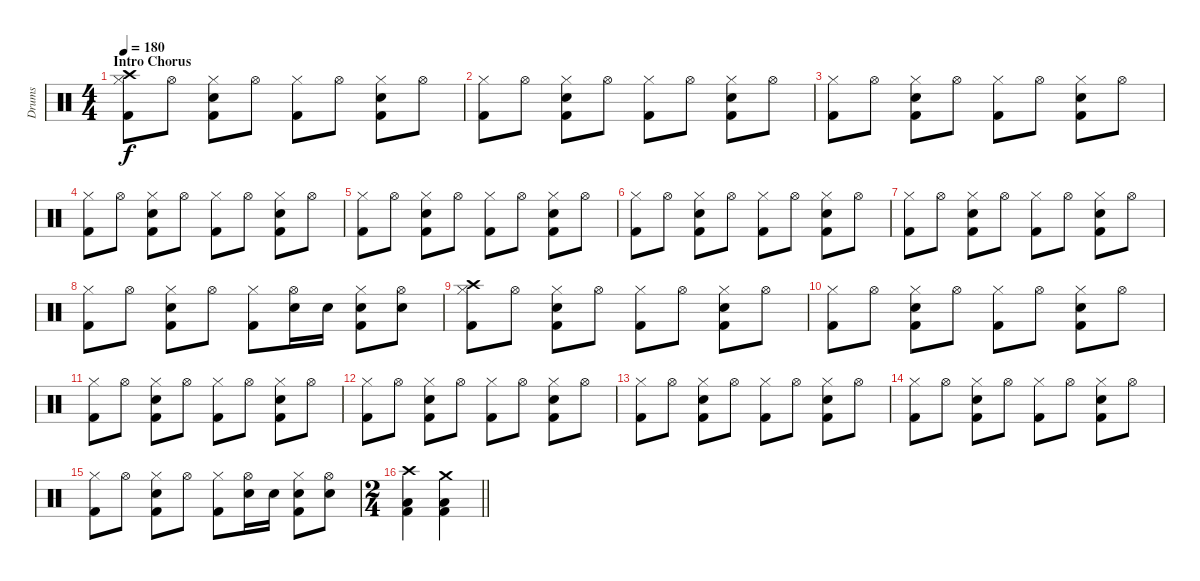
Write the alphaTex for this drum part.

\track ("Drums" "Drums") {instrument percussion}
\staff {score}
\articulation defaults
\ts (4 4)
\section ("" "Intro Chorus")
\tempo 180
\clef neutral
\ks c
("Crash high (hit)" "Hi-Hat (closed)" "Kick (hit) 2").8{dy f} "Hi-Hat (open)".8 ("Hi-Hat (closed)" "Snare (hit) 2" "Kick (hit) 2").8 "Hi-Hat (open)".8 ("Hi-Hat (closed)" "Kick (hit) 2").8 "Hi-Hat (open)".8 ("Hi-Hat (closed)" "Snare (hit) 2" "Kick (hit) 2").8 "Hi-Hat (open)".8 |
("Hi-Hat (closed)" "Kick (hit) 2").8 "Hi-Hat (open)".8 ("Hi-Hat (closed)" "Snare (hit) 2" "Kick (hit) 2").8 "Hi-Hat (open)".8 ("Hi-Hat (closed)" "Kick (hit) 2").8 "Hi-Hat (open)".8 ("Hi-Hat (closed)" "Snare (hit) 2" "Kick (hit) 2").8 "Hi-Hat (open)".8 |
("Hi-Hat (closed)" "Kick (hit) 2").8 "Hi-Hat (open)".8 ("Hi-Hat (closed)" "Snare (hit) 2" "Kick (hit) 2").8 "Hi-Hat (open)".8 ("Hi-Hat (closed)" "Kick (hit) 2").8 "Hi-Hat (open)".8 ("Hi-Hat (closed)" "Snare (hit) 2" "Kick (hit) 2").8 "Hi-Hat (open)".8 |
("Hi-Hat (closed)" "Kick (hit) 2").8 "Hi-Hat (open)".8 ("Hi-Hat (closed)" "Snare (hit) 2" "Kick (hit) 2").8 "Hi-Hat (open)".8 ("Hi-Hat (closed)" "Kick (hit) 2").8 "Hi-Hat (open)".8 ("Hi-Hat (closed)" "Snare (hit) 2" "Kick (hit) 2").8 "Hi-Hat (open)".8 |
("Hi-Hat (closed)" "Kick (hit) 2").8 "Hi-Hat (open)".8 ("Hi-Hat (closed)" "Snare (hit) 2" "Kick (hit) 2").8 "Hi-Hat (open)".8 ("Hi-Hat (closed)" "Kick (hit) 2").8 "Hi-Hat (open)".8 ("Hi-Hat (closed)" "Snare (hit) 2" "Kick (hit) 2").8 "Hi-Hat (open)".8 |
("Hi-Hat (closed)" "Kick (hit) 2").8 "Hi-Hat (open)".8 ("Hi-Hat (closed)" "Snare (hit) 2" "Kick (hit) 2").8 "Hi-Hat (open)".8 ("Hi-Hat (closed)" "Kick (hit) 2").8 "Hi-Hat (open)".8 ("Hi-Hat (closed)" "Snare (hit) 2" "Kick (hit) 2").8 "Hi-Hat (open)".8 |
("Hi-Hat (closed)" "Kick (hit) 2").8 "Hi-Hat (open)".8 ("Hi-Hat (closed)" "Snare (hit) 2" "Kick (hit) 2").8 "Hi-Hat (open)".8 ("Hi-Hat (closed)" "Kick (hit) 2").8 "Hi-Hat (open)".8 ("Hi-Hat (closed)" "Snare (hit) 2" "Kick (hit) 2").8 "Hi-Hat (open)".8 |
("Hi-Hat (closed)" "Kick (hit) 2").8 "Hi-Hat (open)".8 ("Hi-Hat (closed)" "Snare (hit) 2" "Kick (hit) 2").8 "Hi-Hat (open)".8 ("Hi-Hat (closed)" "Kick (hit) 2").8 ("Hi-Hat (open)" "Snare (hit) 2").16 "Snare (hit) 2".16 ("Hi-Hat (closed)" "Snare (hit) 2" "Kick (hit) 2").8 ("Hi-Hat (open)" "Snare (hit) 2").8 |
("Crash high (hit)" "Hi-Hat (closed)" "Kick (hit) 2").8 "Hi-Hat (open)".8 ("Hi-Hat (closed)" "Snare (hit) 2" "Kick (hit) 2").8 "Hi-Hat (open)".8 ("Hi-Hat (closed)" "Kick (hit) 2").8 "Hi-Hat (open)".8 ("Hi-Hat (closed)" "Snare (hit) 2" "Kick (hit) 2").8 "Hi-Hat (open)".8 |
("Hi-Hat (closed)" "Kick (hit) 2").8 "Hi-Hat (open)".8 ("Hi-Hat (closed)" "Snare (hit) 2" "Kick (hit) 2").8 "Hi-Hat (open)".8 ("Hi-Hat (closed)" "Kick (hit) 2").8 "Hi-Hat (open)".8 ("Hi-Hat (closed)" "Snare (hit) 2" "Kick (hit) 2").8 "Hi-Hat (open)".8 |
("Hi-Hat (closed)" "Kick (hit) 2").8 "Hi-Hat (open)".8 ("Hi-Hat (closed)" "Snare (hit) 2" "Kick (hit) 2").8 "Hi-Hat (open)".8 ("Hi-Hat (closed)" "Kick (hit) 2").8 "Hi-Hat (open)".8 ("Hi-Hat (closed)" "Snare (hit) 2" "Kick (hit) 2").8 "Hi-Hat (open)".8 |
("Hi-Hat (closed)" "Kick (hit) 2").8 "Hi-Hat (open)".8 ("Hi-Hat (closed)" "Snare (hit) 2" "Kick (hit) 2").8 "Hi-Hat (open)".8 ("Hi-Hat (closed)" "Kick (hit) 2").8 "Hi-Hat (open)".8 ("Hi-Hat (closed)" "Snare (hit) 2" "Kick (hit) 2").8 "Hi-Hat (open)".8 |
("Hi-Hat (closed)" "Kick (hit) 2").8 "Hi-Hat (open)".8 ("Hi-Hat (closed)" "Snare (hit) 2" "Kick (hit) 2").8 "Hi-Hat (open)".8 ("Hi-Hat (closed)" "Kick (hit) 2").8 "Hi-Hat (open)".8 ("Hi-Hat (closed)" "Snare (hit) 2" "Kick (hit) 2").8 "Hi-Hat (open)".8 |
("Hi-Hat (closed)" "Kick (hit) 2").8 "Hi-Hat (open)".8 ("Hi-Hat (closed)" "Snare (hit) 2" "Kick (hit) 2").8 "Hi-Hat (open)".8 ("Hi-Hat (closed)" "Kick (hit) 2").8 "Hi-Hat (open)".8 ("Hi-Hat (closed)" "Snare (hit) 2" "Kick (hit) 2").8 "Hi-Hat (open)".8 |
("Hi-Hat (closed)" "Kick (hit) 2").8 "Hi-Hat (open)".8 ("Hi-Hat (closed)" "Snare (hit) 2" "Kick (hit) 2").8 "Hi-Hat (open)".8 ("Hi-Hat (closed)" "Kick (hit) 2").8 ("Hi-Hat (open)" "Snare (hit) 2").16 "Snare (hit) 2".16 ("Hi-Hat (closed)" "Snare (hit) 2" "Kick (hit) 2").8 ("Hi-Hat (open)" "Snare (hit) 2").8 |
\ts (2 4)
\barLineRight lightlight
("Crash high (hit)" "Low Floor Tom (hit)" "Kick (hit) 2").4 ("Crash medium (hit)" "Low Floor Tom (hit)" "Kick (hit) 2").4
